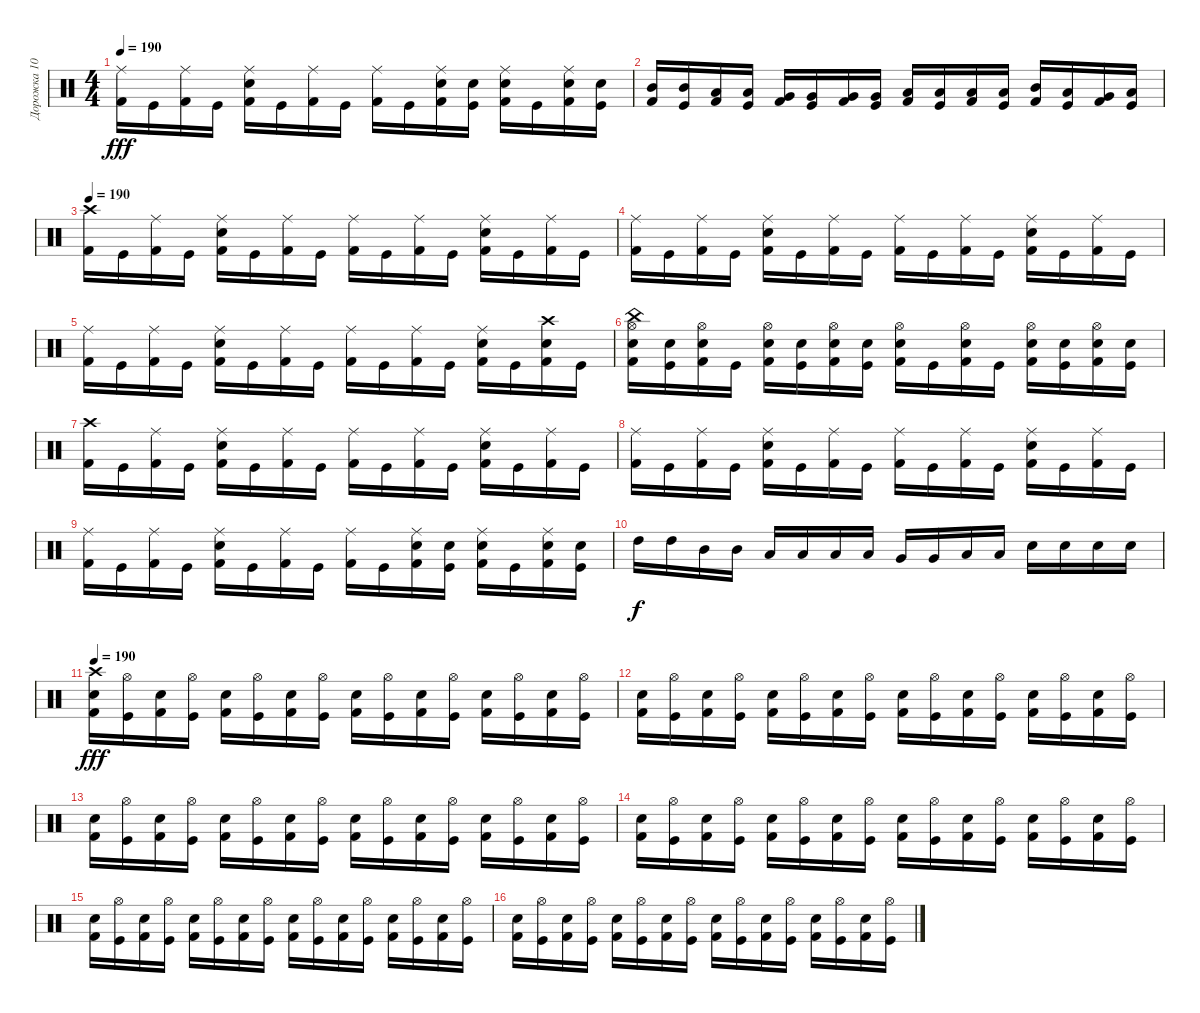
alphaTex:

\track ("Дорожка 10" "Дорожка 10") {instrument percussion}
\staff {score}
\articulation defaults
\ts (4 4)
\tempo 190
\clef neutral
\ks c
("Ride (middle)" "Kick (hit) 2").16{dy fff} "Kick (hit)".16 ("Kick (hit) 2" "Ride (middle)").16 "Kick (hit)".16 ("Ride (middle)" "Kick (hit) 2" "Electric Snare (hit)").16 "Kick (hit)".16 ("Kick (hit) 2" "Ride (middle)").16 "Kick (hit)".16 ("Ride (middle)" "Kick (hit) 2").16 "Kick (hit)".16 ("Kick (hit) 2" "Electric Snare (hit)" "Ride (middle)").16 ("Kick (hit)" "Electric Snare (hit)").16 ("Kick (hit) 2" "Ride (middle)" "Electric Snare (hit)").16 "Kick (hit)".16 ("Kick (hit) 2" "Electric Snare (hit)" "Ride (middle)").16 ("Kick (hit)" "Electric Snare (hit)").16 |
("Kick (hit) 2" "Mid Tom (hit)").16 ("Kick (hit)" "Mid Tom (hit)").16 ("Kick (hit) 2" "Low Tom (hit)").16 ("Low Tom (hit)" "Kick (hit)").16 ("Very Low Tom (hit)" "Kick (hit) 2").16 ("Kick (hit)" "Very Low Tom (hit)").16 ("Very Low Tom (hit)" "Kick (hit) 2").16 ("Kick (hit)" "Very Low Tom (hit)").16 ("Kick (hit) 2" "Low Floor Tom (hit)").16 ("Low Floor Tom (hit)" "Kick (hit)").16 ("Low Floor Tom (hit)" "Kick (hit) 2").16 ("Low Floor Tom (hit)" "Kick (hit)").16 ("Kick (hit) 2" "Mid Tom (hit)").16 ("Low Tom (hit)" "Kick (hit)").16 ("Kick (hit) 2" "Very Low Tom (hit)").16 ("Low Floor Tom (hit)" "Kick (hit)").16 |
\tempo 190
("Crash high (hit)" "Kick (hit) 2").16 "Kick (hit)".16 ("Kick (hit) 2" "Ride (middle)").16 "Kick (hit)".16 ("Ride (middle)" "Kick (hit) 2" "Electric Snare (hit)").16 "Kick (hit)".16 ("Kick (hit) 2" "Ride (middle)").16 "Kick (hit)".16 ("Kick (hit) 2" "Ride (middle)").16 "Kick (hit)".16 ("Kick (hit) 2" "Ride (middle)").16 "Kick (hit)".16 ("Kick (hit) 2" "Electric Snare (hit)" "Ride (middle)").16 "Kick (hit)".16 ("Kick (hit) 2" "Ride (middle)").16 "Kick (hit)".16 |
("Ride (middle)" "Kick (hit) 2").16 "Kick (hit)".16 ("Kick (hit) 2" "Ride (middle)").16 "Kick (hit)".16 ("Electric Snare (hit)" "Kick (hit) 2" "Ride (middle)").16 "Kick (hit)".16 ("Ride (middle)" "Kick (hit) 2").16 "Kick (hit)".16 ("Kick (hit) 2" "Ride (middle)").16 "Kick (hit)".16 ("Kick (hit) 2" "Ride (middle)").16 "Kick (hit)".16 ("Electric Snare (hit)" "Ride (middle)" "Kick (hit) 2").16 "Kick (hit)".16 ("Kick (hit) 2" "Ride (middle)").16 "Kick (hit)".16 |
("Kick (hit) 2" "Ride (middle)").16 "Kick (hit)".16 ("Ride (middle)" "Kick (hit) 2").16 "Kick (hit)".16 ("Kick (hit) 2" "Ride (middle)" "Electric Snare (hit)").16 "Kick (hit)".16 ("Ride (middle)" "Kick (hit) 2").16 "Kick (hit)".16 ("Kick (hit) 2" "Ride (middle)").16 "Kick (hit)".16 ("Kick (hit) 2" "Ride (middle)").16 "Kick (hit)".16 ("Electric Snare (hit)" "Kick (hit) 2" "Ride (middle)").16 "Kick (hit)".16 ("Electric Snare (hit)" "Kick (hit) 2" "Crash high (hit)").16 "Kick (hit)".16 |
("Electric Snare (hit)" "China (hit)" "Hi-Hat (open)" "Kick (hit) 2").16 ("Electric Snare (hit)" "Kick (hit)").16 ("Hi-Hat (open)" "Electric Snare (hit)" "Kick (hit) 2").16 "Kick (hit)".16 ("Electric Snare (hit)" "Hi-Hat (open)" "Kick (hit) 2").16 ("Kick (hit)" "Electric Snare (hit)").16 ("Kick (hit) 2" "Hi-Hat (open)" "Electric Snare (hit)").16 ("Electric Snare (hit)" "Kick (hit)").16 ("Hi-Hat (open)" "Kick (hit) 2" "Electric Snare (hit)").16 "Kick (hit)".16 ("Electric Snare (hit)" "Hi-Hat (open)" "Kick (hit) 2").16 "Kick (hit)".16 ("Kick (hit) 2" "Electric Snare (hit)" "Hi-Hat (open)").16 ("Electric Snare (hit)" "Kick (hit)").16 ("Electric Snare (hit)" "Hi-Hat (open)" "Kick (hit) 2").16 ("Electric Snare (hit)" "Kick (hit)").16 |
("Kick (hit) 2" "Crash high (hit)").16 "Kick (hit)".16 ("Kick (hit) 2" "Ride (middle)").16 "Kick (hit)".16 ("Electric Snare (hit)" "Kick (hit) 2" "Ride (middle)").16 "Kick (hit)".16 ("Kick (hit) 2" "Ride (middle)").16 "Kick (hit)".16 ("Ride (middle)" "Kick (hit) 2").16 "Kick (hit)".16 ("Kick (hit) 2" "Ride (middle)").16 "Kick (hit)".16 ("Kick (hit) 2" "Electric Snare (hit)" "Ride (middle)").16 "Kick (hit)".16 ("Kick (hit) 2" "Ride (middle)").16 "Kick (hit)".16 |
("Ride (middle)" "Kick (hit) 2").16 "Kick (hit)".16 ("Kick (hit) 2" "Ride (middle)").16 "Kick (hit)".16 ("Ride (middle)" "Kick (hit) 2" "Electric Snare (hit)").16 "Kick (hit)".16 ("Kick (hit) 2" "Ride (middle)").16 "Kick (hit)".16 ("Ride (middle)" "Kick (hit) 2").16 "Kick (hit)".16 ("Kick (hit) 2" "Ride (middle)").16 "Kick (hit)".16 ("Ride (middle)" "Electric Snare (hit)" "Kick (hit) 2").16 "Kick (hit)".16 ("Ride (middle)" "Kick (hit) 2").16 "Kick (hit)".16 |
("Kick (hit) 2" "Ride (middle)").16 "Kick (hit)".16 ("Ride (middle)" "Kick (hit) 2").16 "Kick (hit)".16 ("Kick (hit) 2" "Ride (middle)" "Electric Snare (hit)").16 "Kick (hit)".16 ("Ride (middle)" "Kick (hit) 2").16 "Kick (hit)".16 ("Kick (hit) 2" "Ride (middle)").16 "Kick (hit)".16 ("Electric Snare (hit)" "Kick (hit) 2" "Ride (middle)").16 ("Kick (hit)" "Electric Snare (hit)").16 ("Electric Snare (hit)" "Kick (hit) 2" "Ride (middle)").16 "Kick (hit)".16 ("Kick (hit) 2" "Electric Snare (hit)" "Ride (middle)").16 ("Electric Snare (hit)" "Kick (hit)").16 |
"High Tom (hit)".16{dy f} "High Tom (hit)".16 "Mid Tom (hit)".16 "Mid Tom (hit)".16 "Low Tom (hit)".16 "Low Tom (hit)".16 "Low Tom (hit)".16 "Low Tom (hit)".16 "Very Low Tom (hit)".16 "Very Low Tom (hit)".16 "Low Floor Tom (hit)".16 "Low Floor Tom (hit)".16 "Snare (hit) 2".16 "Snare (hit) 2".16 "Snare (hit) 2".16 "Snare (hit) 2".16 |
\tempo 190
("Crash high (hit)" "Kick (hit) 2" "Electric Snare (hit)").16{dy fff} ("Kick (hit)" "Hi-Hat (open)").16 ("Electric Snare (hit)" "Kick (hit) 2").16 ("Hi-Hat (open)" "Kick (hit)").16 ("Electric Snare (hit)" "Kick (hit) 2").16 ("Kick (hit)" "Hi-Hat (open)").16 ("Kick (hit) 2" "Electric Snare (hit)").16 ("Hi-Hat (open)" "Kick (hit)").16 ("Kick (hit) 2" "Electric Snare (hit)").16 ("Hi-Hat (open)" "Kick (hit)").16 ("Electric Snare (hit)" "Kick (hit) 2").16 ("Kick (hit)" "Hi-Hat (open)").16 ("Kick (hit) 2" "Electric Snare (hit)").16 ("Kick (hit)" "Hi-Hat (open)").16 ("Electric Snare (hit)" "Kick (hit) 2").16 ("Hi-Hat (open)" "Kick (hit)").16 |
("Electric Snare (hit)" "Kick (hit) 2").16 ("Kick (hit)" "Hi-Hat (open)").16 ("Kick (hit) 2" "Electric Snare (hit)").16 ("Kick (hit)" "Hi-Hat (open)").16 ("Electric Snare (hit)" "Kick (hit) 2").16 ("Hi-Hat (open)" "Kick (hit)").16 ("Electric Snare (hit)" "Kick (hit) 2").16 ("Hi-Hat (open)" "Kick (hit)").16 ("Electric Snare (hit)" "Kick (hit) 2").16 ("Kick (hit)" "Hi-Hat (open)").16 ("Kick (hit) 2" "Electric Snare (hit)").16 ("Hi-Hat (open)" "Kick (hit)").16 ("Electric Snare (hit)" "Kick (hit) 2").16 ("Kick (hit)" "Hi-Hat (open)").16 ("Electric Snare (hit)" "Kick (hit) 2").16 ("Hi-Hat (open)" "Kick (hit)").16 |
("Kick (hit) 2" "Electric Snare (hit)").16 ("Hi-Hat (open)" "Kick (hit)").16 ("Electric Snare (hit)" "Kick (hit) 2").16 ("Kick (hit)" "Hi-Hat (open)").16 ("Kick (hit) 2" "Electric Snare (hit)").16 ("Hi-Hat (open)" "Kick (hit)").16 ("Kick (hit) 2" "Electric Snare (hit)").16 ("Kick (hit)" "Hi-Hat (open)").16 ("Electric Snare (hit)" "Kick (hit) 2").16 ("Hi-Hat (open)" "Kick (hit)").16 ("Electric Snare (hit)" "Kick (hit) 2").16 ("Hi-Hat (open)" "Kick (hit)").16 ("Electric Snare (hit)" "Kick (hit) 2").16 ("Kick (hit)" "Hi-Hat (open)").16 ("Kick (hit) 2" "Electric Snare (hit)").16 ("Kick (hit)" "Hi-Hat (open)").16 |
("Electric Snare (hit)" "Kick (hit) 2").16 ("Kick (hit)" "Hi-Hat (open)").16 ("Electric Snare (hit)" "Kick (hit) 2").16 ("Kick (hit)" "Hi-Hat (open)").16 ("Electric Snare (hit)" "Kick (hit) 2").16 ("Hi-Hat (open)" "Kick (hit)").16 ("Electric Snare (hit)" "Kick (hit) 2").16 ("Kick (hit)" "Hi-Hat (open)").16 ("Electric Snare (hit)" "Kick (hit) 2").16 ("Hi-Hat (open)" "Kick (hit)").16 ("Kick (hit) 2" "Electric Snare (hit)").16 ("Hi-Hat (open)" "Kick (hit)").16 ("Electric Snare (hit)" "Kick (hit) 2").16 ("Hi-Hat (open)" "Kick (hit)").16 ("Electric Snare (hit)" "Kick (hit) 2").16 ("Hi-Hat (open)" "Kick (hit)").16 |
("Kick (hit) 2" "Electric Snare (hit)").16 ("Kick (hit)" "Hi-Hat (open)").16 ("Kick (hit) 2" "Electric Snare (hit)").16 ("Hi-Hat (open)" "Kick (hit)").16 ("Electric Snare (hit)" "Kick (hit) 2").16 ("Hi-Hat (open)" "Kick (hit)").16 ("Electric Snare (hit)" "Kick (hit) 2").16 ("Hi-Hat (open)" "Kick (hit)").16 ("Kick (hit) 2" "Electric Snare (hit)").16 ("Hi-Hat (open)" "Kick (hit)").16 ("Electric Snare (hit)" "Kick (hit) 2").16 ("Hi-Hat (open)" "Kick (hit)").16 ("Kick (hit) 2" "Electric Snare (hit)").16 ("Kick (hit)" "Hi-Hat (open)").16 ("Kick (hit) 2" "Electric Snare (hit)").16 ("Kick (hit)" "Hi-Hat (open)").16 |
("Electric Snare (hit)" "Kick (hit) 2").16 ("Hi-Hat (open)" "Kick (hit)").16 ("Kick (hit) 2" "Electric Snare (hit)").16 ("Kick (hit)" "Hi-Hat (open)").16 ("Kick (hit) 2" "Electric Snare (hit)").16 ("Kick (hit)" "Hi-Hat (open)").16 ("Kick (hit) 2" "Electric Snare (hit)").16 ("Kick (hit)" "Hi-Hat (open)").16 ("Kick (hit) 2" "Electric Snare (hit)").16 ("Hi-Hat (open)" "Kick (hit)").16 ("Kick (hit) 2" "Electric Snare (hit)").16 ("Hi-Hat (open)" "Kick (hit)").16 ("Electric Snare (hit)" "Kick (hit) 2").16 ("Kick (hit)" "Hi-Hat (open)").16 ("Electric Snare (hit)" "Kick (hit) 2").16 ("Hi-Hat (open)" "Kick (hit)").16
